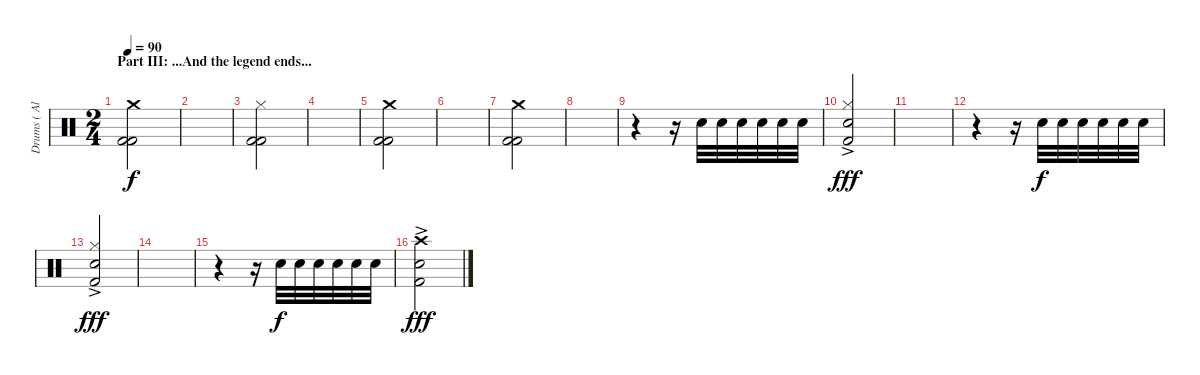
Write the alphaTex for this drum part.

\track ("Drums ( Alex Holzwarth)" "Drums ( Al") {instrument percussion}
\staff {score}
\articulation defaults
\ts (2 4)
\section ("" "Part III: ...And the legend ends...")
\tempo 90
\clef neutral
\ks c
("Crash medium (hit)" "Kick (hit) 2" "Kick (hit) 2").2{dy f} |
|
("Hi-Hat (closed)" "Kick (hit) 2" "Kick (hit) 2").2 |
|
("Crash medium (hit)" "Kick (hit) 2" "Kick (hit) 2").2 |
|
("Crash medium (hit)" "Kick (hit) 2" "Kick (hit) 2").2 |
|
r.4{volume 10} r.16 "Electric Snare (hit)".32 "Electric Snare (hit)".32 "Electric Snare (hit)".32 "Electric Snare (hit)".32 "Electric Snare (hit)".32 "Electric Snare (hit)".32 |
("Hi-Hat (closed)"{ac} "Snare (hit) 2"{ac} "Kick (hit) 2"{ac}).2{dy fff} |
|
r.4{volume 10} r.16 "Electric Snare (hit)".32{dy f} "Electric Snare (hit)".32 "Electric Snare (hit)".32 "Electric Snare (hit)".32 "Electric Snare (hit)".32 "Electric Snare (hit)".32 |
("Hi-Hat (closed)"{ac} "Snare (hit) 2"{ac} "Kick (hit) 2"{ac}).2{dy fff} |
|
r.4{volume 10} r.16 "Electric Snare (hit)".32{dy f} "Electric Snare (hit)".32 "Electric Snare (hit)".32 "Electric Snare (hit)".32 "Electric Snare (hit)".32 "Electric Snare (hit)".32 |
("Crash high (hit)"{ac} "Snare (hit) 2" "Kick (hit) 2"{ac}).2{dy fff volume 16}
